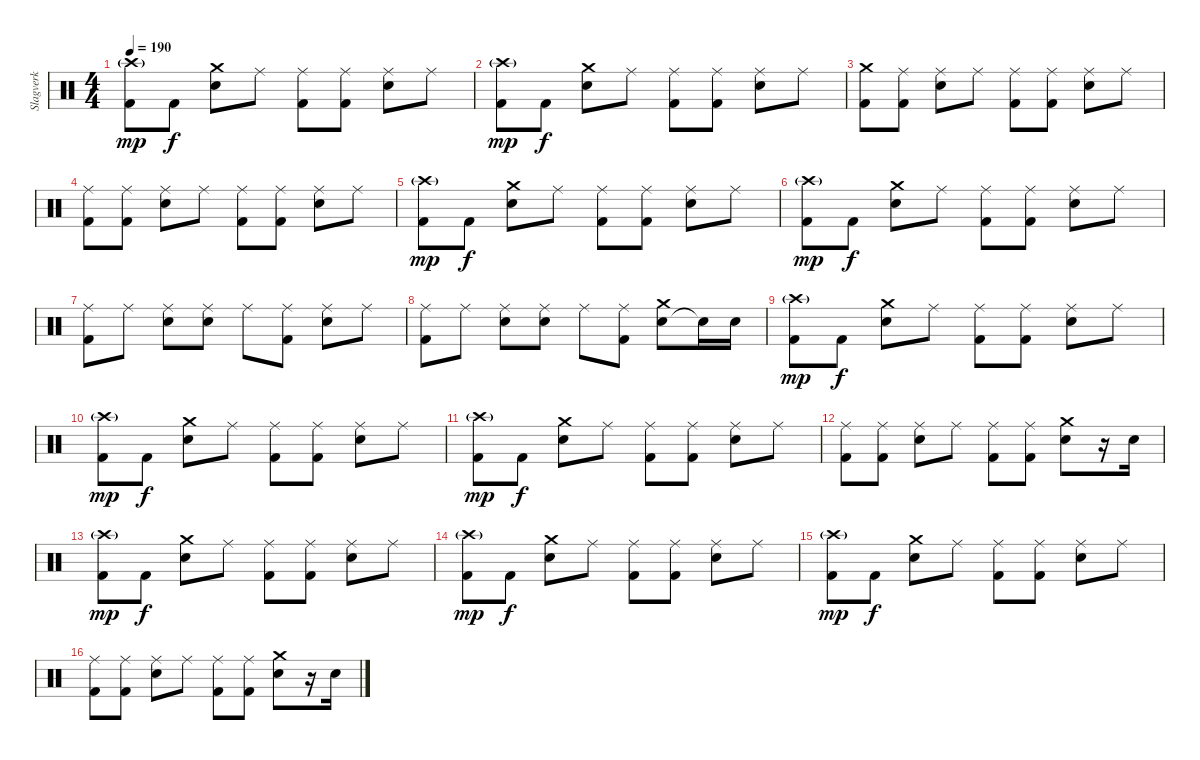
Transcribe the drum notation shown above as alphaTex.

\track ("Slagverk" "Slagverk") {instrument percussion}
\staff {score}
\articulation defaults
\ts (4 4)
\tempo 190
\clef neutral
\ks c
("Kick (hit) 2" "Crash high (hit)"{g}).8{dy mp} "Kick (hit) 2".8{dy f} ("Electric Snare (hit)" "Crash medium (hit)").8 "Ride (middle)".8 ("Kick (hit) 2" "Ride (middle)").8 ("Kick (hit) 2" "Ride (middle)").8 ("Electric Snare (hit)" "Ride (middle)").8 "Ride (middle)".8 |
("Kick (hit) 2" "Crash high (hit)"{g}).8{dy mp} "Kick (hit) 2".8{dy f} ("Electric Snare (hit)" "Crash medium (hit)").8 "Ride (middle)".8 ("Kick (hit) 2" "Ride (middle)").8 ("Kick (hit) 2" "Ride (middle)").8 ("Electric Snare (hit)" "Ride (middle)").8 "Ride (middle)".8 |
("Kick (hit) 2" "Crash medium (hit)").8 ("Kick (hit) 2" "Ride (middle)").8 ("Electric Snare (hit)" "Ride (middle)").8 "Ride (middle)".8 ("Kick (hit) 2" "Ride (middle)").8 ("Kick (hit) 2" "Ride (middle)").8 ("Electric Snare (hit)" "Ride (middle)").8 "Ride (middle)".8 |
("Kick (hit) 2" "Ride (middle)").8 ("Kick (hit) 2" "Ride (middle)").8 ("Electric Snare (hit)" "Ride (middle)").8 "Ride (middle)".8 ("Kick (hit) 2" "Ride (middle)").8 ("Kick (hit) 2" "Ride (middle)").8 ("Electric Snare (hit)" "Ride (middle)").8 "Ride (middle)".8 |
("Kick (hit) 2" "Crash high (hit)"{g}).8{dy mp} "Kick (hit) 2".8{dy f} ("Electric Snare (hit)" "Crash medium (hit)").8 "Ride (middle)".8 ("Kick (hit) 2" "Ride (middle)").8 ("Kick (hit) 2" "Ride (middle)").8 ("Electric Snare (hit)" "Ride (middle)").8 "Ride (middle)".8 |
("Kick (hit) 2" "Crash high (hit)"{g}).8{dy mp} "Kick (hit) 2".8{dy f} ("Electric Snare (hit)" "Crash medium (hit)").8 "Ride (middle)".8 ("Kick (hit) 2" "Ride (middle)").8 ("Kick (hit) 2" "Ride (middle)").8 ("Electric Snare (hit)" "Ride (middle)").8 "Ride (middle)".8 |
("Kick (hit) 2" "Ride (middle)").8 "Ride (middle)".8 ("Electric Snare (hit)" "Ride (middle)").8 ("Electric Snare (hit)" "Ride (middle)").8 "Ride (middle)".8 ("Kick (hit) 2" "Ride (middle)").8 ("Electric Snare (hit)" "Ride (middle)").8 "Ride (middle)".8 |
("Kick (hit) 2" "Ride (middle)").8 "Ride (middle)".8 ("Electric Snare (hit)" "Ride (middle)").8 ("Electric Snare (hit)" "Ride (middle)").8 "Ride (middle)".8 ("Kick (hit) 2" "Ride (middle)").8 ("Electric Snare (hit)" "Crash medium (hit)").8 "Electric Snare (hit)"{t}.16 "Electric Snare (hit)".16 |
("Kick (hit) 2" "Crash high (hit)"{g}).8{dy mp} "Kick (hit) 2".8{dy f} ("Electric Snare (hit)" "Crash medium (hit)").8 "Ride (middle)".8 ("Kick (hit) 2" "Ride (middle)").8 ("Kick (hit) 2" "Ride (middle)").8 ("Electric Snare (hit)" "Ride (middle)").8 "Ride (middle)".8 |
("Kick (hit) 2" "Crash high (hit)"{g}).8{dy mp} "Kick (hit) 2".8{dy f} ("Electric Snare (hit)" "Crash medium (hit)").8 "Ride (middle)".8 ("Kick (hit) 2" "Ride (middle)").8 ("Kick (hit) 2" "Ride (middle)").8 ("Electric Snare (hit)" "Ride (middle)").8 "Ride (middle)".8 |
("Kick (hit) 2" "Crash high (hit)"{g}).8{dy mp} "Kick (hit) 2".8{dy f} ("Electric Snare (hit)" "Crash medium (hit)").8 "Ride (middle)".8 ("Kick (hit) 2" "Ride (middle)").8 ("Kick (hit) 2" "Ride (middle)").8 ("Electric Snare (hit)" "Ride (middle)").8 "Ride (middle)".8 |
("Kick (hit) 2" "Ride (middle)").8 ("Kick (hit) 2" "Ride (middle)").8 ("Electric Snare (hit)" "Ride (middle)").8 "Ride (middle)".8 ("Kick (hit) 2" "Ride (middle)").8 ("Kick (hit) 2" "Ride (middle)").8 ("Electric Snare (hit)" "Crash medium (hit)").8 r.16 "Electric Snare (hit)".16 |
("Kick (hit) 2" "Crash high (hit)"{g}).8{dy mp} "Kick (hit) 2".8{dy f} ("Electric Snare (hit)" "Crash medium (hit)").8 "Ride (middle)".8 ("Kick (hit) 2" "Ride (middle)").8 ("Kick (hit) 2" "Ride (middle)").8 ("Electric Snare (hit)" "Ride (middle)").8 "Ride (middle)".8 |
("Kick (hit) 2" "Crash high (hit)"{g}).8{dy mp} "Kick (hit) 2".8{dy f} ("Electric Snare (hit)" "Crash medium (hit)").8 "Ride (middle)".8 ("Kick (hit) 2" "Ride (middle)").8 ("Kick (hit) 2" "Ride (middle)").8 ("Electric Snare (hit)" "Ride (middle)").8 "Ride (middle)".8 |
("Kick (hit) 2" "Crash high (hit)"{g}).8{dy mp} "Kick (hit) 2".8{dy f} ("Electric Snare (hit)" "Crash medium (hit)").8 "Ride (middle)".8 ("Kick (hit) 2" "Ride (middle)").8 ("Kick (hit) 2" "Ride (middle)").8 ("Electric Snare (hit)" "Ride (middle)").8 "Ride (middle)".8 |
("Kick (hit) 2" "Ride (middle)").8 ("Kick (hit) 2" "Ride (middle)").8 ("Electric Snare (hit)" "Ride (middle)").8 "Ride (middle)".8 ("Kick (hit) 2" "Ride (middle)").8 ("Kick (hit) 2" "Ride (middle)").8 ("Electric Snare (hit)" "Crash medium (hit)").8 r.16 "Electric Snare (hit)".16
